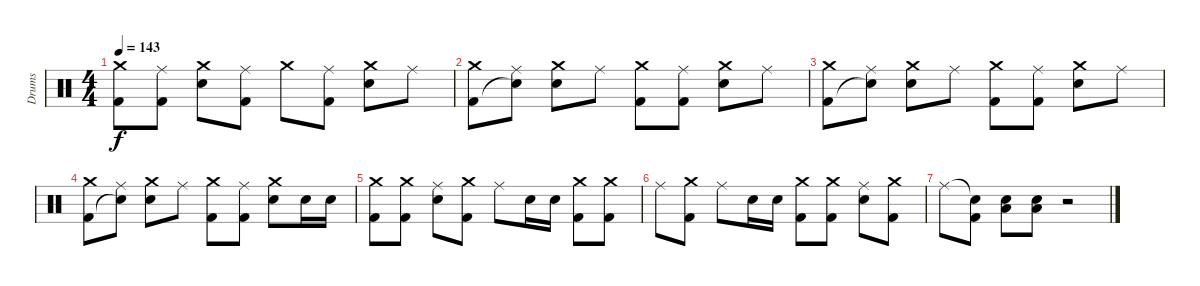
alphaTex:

\track ("Drums" "Drums") {instrument percussion}
\staff {score}
\articulation defaults
\ts (4 4)
\tempo 143
\clef neutral
\ks aminor
("Crash medium (hit)" "Kick (hit) 2").8{dy f} ("Ride (middle)" "Kick (hit) 2").8 ("Crash medium (hit)" "Electric Snare (hit)").8 ("Ride (middle)" "Kick (hit) 2").8 "Crash medium (hit)".8 ("Ride (middle)" "Kick (hit) 2").8 ("Crash medium (hit)" "Electric Snare (hit)").8 "Ride (middle)".8 |
("Crash medium (hit)" "Kick (hit) 2").8 ("Ride (middle)" "Snare (hit)"{t}).8 ("Crash medium (hit)" "Electric Snare (hit)").8 "Ride (middle)".8 ("Crash medium (hit)" "Kick (hit) 2").8 ("Ride (middle)" "Kick (hit) 2").8 ("Crash medium (hit)" "Electric Snare (hit)").8 "Ride (middle)".8 |
("Crash medium (hit)" "Kick (hit) 2").8 ("Ride (middle)" "Snare (hit)"{t}).8 ("Crash medium (hit)" "Electric Snare (hit)").8 "Ride (middle)".8 ("Crash medium (hit)" "Kick (hit) 2").8 ("Ride (middle)" "Kick (hit) 2").8 ("Crash medium (hit)" "Electric Snare (hit)").8 "Ride (middle)".8 |
("Crash medium (hit)" "Kick (hit) 2").8 ("Ride (middle)" "Snare (hit)"{t}).8 ("Crash medium (hit)" "Electric Snare (hit)").8 "Ride (middle)".8 ("Crash medium (hit)" "Kick (hit) 2").8 ("Ride (middle)" "Kick (hit) 2").8 ("Crash medium (hit)" "Electric Snare (hit)").8 "Electric Snare (hit)".16 "Electric Snare (hit)".16 |
("Crash medium (hit)" "Kick (hit) 2").8 ("Crash medium (hit)" "Kick (hit) 2").8 ("Ride (middle)" "Electric Snare (hit)").8 ("Crash medium (hit)" "Kick (hit) 2").8 "Ride (middle)".8 "Electric Snare (hit)".16 "Electric Snare (hit)".16 ("Crash medium (hit)" "Kick (hit) 2").8 ("Crash medium (hit)" "Kick (hit) 2").8 |
"Ride (middle)".8 ("Crash medium (hit)" "Kick (hit) 2").8 "Ride (middle)".8 "Electric Snare (hit)".16 "Electric Snare (hit)".16 ("Crash medium (hit)" "Kick (hit) 2").8 ("Crash medium (hit)" "Kick (hit) 2").8 ("Ride (middle)" "Electric Snare (hit)").8 ("Crash medium (hit)" "Kick (hit) 2").8 |
"Ride (middle)".8 ("Snare (hit)"{t} "Kick (hit) 2").8 ("Electric Snare (hit)" "Low Floor Tom (hit)").8 ("Electric Snare (hit)" "Low Floor Tom (hit)").8 r.2
